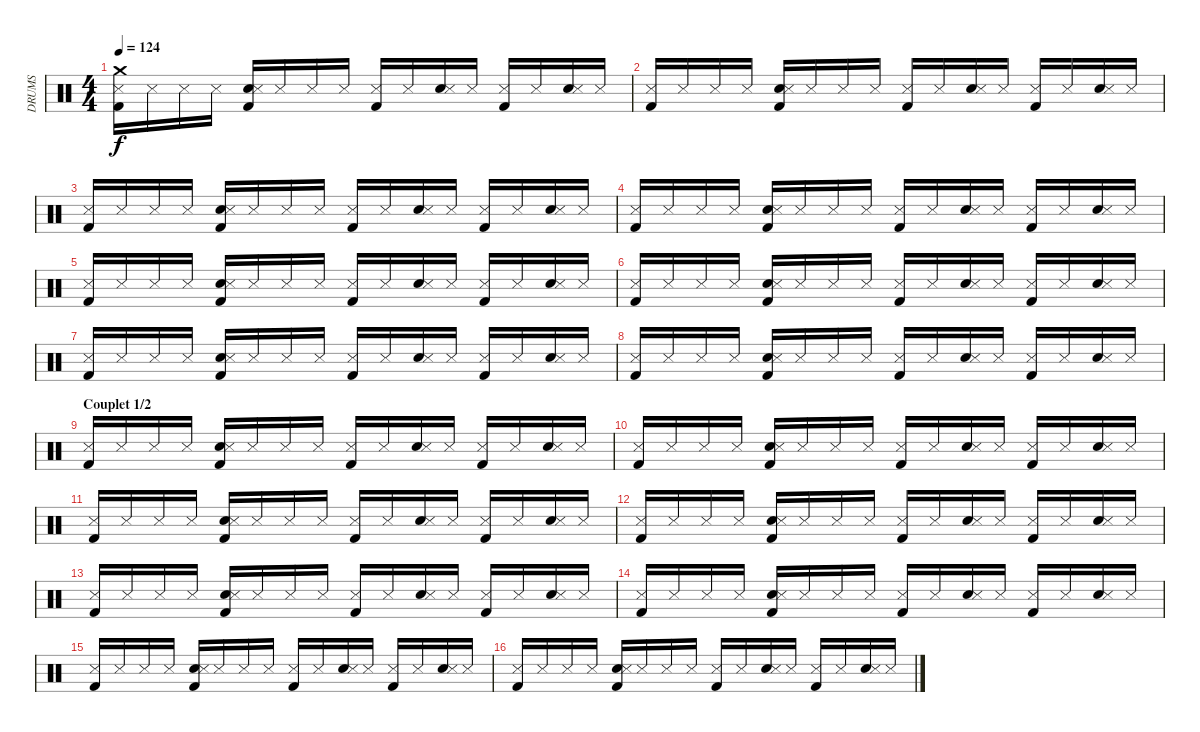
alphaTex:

\track ("DRUMS" "DRUMS") {instrument percussion}
\staff {score}
\articulation defaults
\ts (4 4)
\tempo 124
\clef neutral
\ks c
("Kick (hit) 2" "Snare (side stick) 3" "Crash medium (hit)").16{dy f} "Snare (side stick) 3".16 "Snare (side stick) 3".16 "Snare (side stick) 3".16 ("Kick (hit) 2" "Snare (hit) 2" "Snare (side stick) 3").16 "Snare (side stick) 3".16 "Snare (side stick) 3".16 "Snare (side stick) 3".16 ("Kick (hit) 2" "Snare (side stick) 3").16 "Snare (side stick) 3".16 ("Snare (hit) 2" "Snare (side stick) 3").16 "Snare (side stick) 3".16 ("Kick (hit) 2" "Snare (side stick) 3").16 "Snare (side stick) 3".16 ("Snare (hit) 2" "Snare (side stick) 3").16 "Snare (side stick) 3".16 |
("Kick (hit) 2" "Snare (side stick) 3").16 "Snare (side stick) 3".16 "Snare (side stick) 3".16 "Snare (side stick) 3".16 ("Kick (hit) 2" "Snare (hit) 2" "Snare (side stick) 3").16 "Snare (side stick) 3".16 "Snare (side stick) 3".16 "Snare (side stick) 3".16 ("Kick (hit) 2" "Snare (side stick) 3").16 "Snare (side stick) 3".16 ("Snare (hit) 2" "Snare (side stick) 3").16 "Snare (side stick) 3".16 ("Kick (hit) 2" "Snare (side stick) 3").16 "Snare (side stick) 3".16 ("Snare (hit) 2" "Snare (side stick) 3").16 "Snare (side stick) 3".16 |
("Kick (hit) 2" "Snare (side stick) 3").16 "Snare (side stick) 3".16 "Snare (side stick) 3".16 "Snare (side stick) 3".16 ("Kick (hit) 2" "Snare (hit) 2" "Snare (side stick) 3").16 "Snare (side stick) 3".16 "Snare (side stick) 3".16 "Snare (side stick) 3".16 ("Kick (hit) 2" "Snare (side stick) 3").16 "Snare (side stick) 3".16 ("Snare (hit) 2" "Snare (side stick) 3").16 "Snare (side stick) 3".16 ("Kick (hit) 2" "Snare (side stick) 3").16 "Snare (side stick) 3".16 ("Snare (hit) 2" "Snare (side stick) 3").16 "Snare (side stick) 3".16 |
("Kick (hit) 2" "Snare (side stick) 3").16 "Snare (side stick) 3".16 "Snare (side stick) 3".16 "Snare (side stick) 3".16 ("Kick (hit) 2" "Snare (hit) 2" "Snare (side stick) 3").16 "Snare (side stick) 3".16 "Snare (side stick) 3".16 "Snare (side stick) 3".16 ("Kick (hit) 2" "Snare (side stick) 3").16 "Snare (side stick) 3".16 ("Snare (hit) 2" "Snare (side stick) 3").16 "Snare (side stick) 3".16 ("Kick (hit) 2" "Snare (side stick) 3").16 "Snare (side stick) 3".16 ("Snare (hit) 2" "Snare (side stick) 3").16 "Snare (side stick) 3".16 |
("Kick (hit) 2" "Snare (side stick) 3").16 "Snare (side stick) 3".16 "Snare (side stick) 3".16 "Snare (side stick) 3".16 ("Kick (hit) 2" "Snare (hit) 2" "Snare (side stick) 3").16 "Snare (side stick) 3".16 "Snare (side stick) 3".16 "Snare (side stick) 3".16 ("Kick (hit) 2" "Snare (side stick) 3").16 "Snare (side stick) 3".16 ("Snare (hit) 2" "Snare (side stick) 3").16 "Snare (side stick) 3".16 ("Kick (hit) 2" "Snare (side stick) 3").16 "Snare (side stick) 3".16 ("Snare (hit) 2" "Snare (side stick) 3").16 "Snare (side stick) 3".16 |
("Kick (hit) 2" "Snare (side stick) 3").16 "Snare (side stick) 3".16 "Snare (side stick) 3".16 "Snare (side stick) 3".16 ("Kick (hit) 2" "Snare (hit) 2" "Snare (side stick) 3").16 "Snare (side stick) 3".16 "Snare (side stick) 3".16 "Snare (side stick) 3".16 ("Kick (hit) 2" "Snare (side stick) 3").16 "Snare (side stick) 3".16 ("Snare (hit) 2" "Snare (side stick) 3").16 "Snare (side stick) 3".16 ("Kick (hit) 2" "Snare (side stick) 3").16 "Snare (side stick) 3".16 ("Snare (hit) 2" "Snare (side stick) 3").16 "Snare (side stick) 3".16 |
("Kick (hit) 2" "Snare (side stick) 3").16 "Snare (side stick) 3".16 "Snare (side stick) 3".16 "Snare (side stick) 3".16 ("Kick (hit) 2" "Snare (hit) 2" "Snare (side stick) 3").16 "Snare (side stick) 3".16 "Snare (side stick) 3".16 "Snare (side stick) 3".16 ("Kick (hit) 2" "Snare (side stick) 3").16 "Snare (side stick) 3".16 ("Snare (hit) 2" "Snare (side stick) 3").16 "Snare (side stick) 3".16 ("Kick (hit) 2" "Snare (side stick) 3").16 "Snare (side stick) 3".16 ("Snare (hit) 2" "Snare (side stick) 3").16 "Snare (side stick) 3".16 |
("Kick (hit) 2" "Snare (side stick) 3").16 "Snare (side stick) 3".16 "Snare (side stick) 3".16 "Snare (side stick) 3".16 ("Kick (hit) 2" "Snare (hit) 2" "Snare (side stick) 3").16 "Snare (side stick) 3".16 "Snare (side stick) 3".16 "Snare (side stick) 3".16 ("Kick (hit) 2" "Snare (side stick) 3").16 "Snare (side stick) 3".16 ("Snare (hit) 2" "Snare (side stick) 3").16 "Snare (side stick) 3".16 ("Kick (hit) 2" "Snare (side stick) 3").16 "Snare (side stick) 3".16 ("Snare (hit) 2" "Snare (side stick) 3").16 "Snare (side stick) 3".16 |
\section ("" "Couplet 1/2")
("Kick (hit) 2" "Snare (side stick) 3").16 "Snare (side stick) 3".16 "Snare (side stick) 3".16 "Snare (side stick) 3".16 ("Kick (hit) 2" "Snare (hit) 2" "Snare (side stick) 3").16 "Snare (side stick) 3".16 "Snare (side stick) 3".16 "Snare (side stick) 3".16 ("Kick (hit) 2" "Snare (side stick) 3").16 "Snare (side stick) 3".16 ("Snare (hit) 2" "Snare (side stick) 3").16 "Snare (side stick) 3".16 ("Kick (hit) 2" "Snare (side stick) 3").16 "Snare (side stick) 3".16 ("Snare (hit) 2" "Snare (side stick) 3").16 "Snare (side stick) 3".16 |
("Kick (hit) 2" "Snare (side stick) 3").16 "Snare (side stick) 3".16 "Snare (side stick) 3".16 "Snare (side stick) 3".16 ("Kick (hit) 2" "Snare (hit) 2" "Snare (side stick) 3").16 "Snare (side stick) 3".16 "Snare (side stick) 3".16 "Snare (side stick) 3".16 ("Kick (hit) 2" "Snare (side stick) 3").16 "Snare (side stick) 3".16 ("Snare (hit) 2" "Snare (side stick) 3").16 "Snare (side stick) 3".16 ("Kick (hit) 2" "Snare (side stick) 3").16 "Snare (side stick) 3".16 ("Snare (hit) 2" "Snare (side stick) 3").16 "Snare (side stick) 3".16 |
("Kick (hit) 2" "Snare (side stick) 3").16 "Snare (side stick) 3".16 "Snare (side stick) 3".16 "Snare (side stick) 3".16 ("Kick (hit) 2" "Snare (hit) 2" "Snare (side stick) 3").16 "Snare (side stick) 3".16 "Snare (side stick) 3".16 "Snare (side stick) 3".16 ("Kick (hit) 2" "Snare (side stick) 3").16 "Snare (side stick) 3".16 ("Snare (hit) 2" "Snare (side stick) 3").16 "Snare (side stick) 3".16 ("Kick (hit) 2" "Snare (side stick) 3").16 "Snare (side stick) 3".16 ("Snare (hit) 2" "Snare (side stick) 3").16 "Snare (side stick) 3".16 |
("Kick (hit) 2" "Snare (side stick) 3").16 "Snare (side stick) 3".16 "Snare (side stick) 3".16 "Snare (side stick) 3".16 ("Kick (hit) 2" "Snare (hit) 2" "Snare (side stick) 3").16 "Snare (side stick) 3".16 "Snare (side stick) 3".16 "Snare (side stick) 3".16 ("Kick (hit) 2" "Snare (side stick) 3").16 "Snare (side stick) 3".16 ("Snare (hit) 2" "Snare (side stick) 3").16 "Snare (side stick) 3".16 ("Kick (hit) 2" "Snare (side stick) 3").16 "Snare (side stick) 3".16 ("Snare (hit) 2" "Snare (side stick) 3").16 "Snare (side stick) 3".16 |
("Kick (hit) 2" "Snare (side stick) 3").16 "Snare (side stick) 3".16 "Snare (side stick) 3".16 "Snare (side stick) 3".16 ("Kick (hit) 2" "Snare (hit) 2" "Snare (side stick) 3").16 "Snare (side stick) 3".16 "Snare (side stick) 3".16 "Snare (side stick) 3".16 ("Kick (hit) 2" "Snare (side stick) 3").16 "Snare (side stick) 3".16 ("Snare (hit) 2" "Snare (side stick) 3").16 "Snare (side stick) 3".16 ("Kick (hit) 2" "Snare (side stick) 3").16 "Snare (side stick) 3".16 ("Snare (hit) 2" "Snare (side stick) 3").16 "Snare (side stick) 3".16 |
("Kick (hit) 2" "Snare (side stick) 3").16 "Snare (side stick) 3".16 "Snare (side stick) 3".16 "Snare (side stick) 3".16 ("Kick (hit) 2" "Snare (hit) 2" "Snare (side stick) 3").16 "Snare (side stick) 3".16 "Snare (side stick) 3".16 "Snare (side stick) 3".16 ("Kick (hit) 2" "Snare (side stick) 3").16 "Snare (side stick) 3".16 ("Snare (hit) 2" "Snare (side stick) 3").16 "Snare (side stick) 3".16 ("Kick (hit) 2" "Snare (side stick) 3").16 "Snare (side stick) 3".16 ("Snare (hit) 2" "Snare (side stick) 3").16 "Snare (side stick) 3".16 |
("Kick (hit) 2" "Snare (side stick) 3").16 "Snare (side stick) 3".16 "Snare (side stick) 3".16 "Snare (side stick) 3".16 ("Kick (hit) 2" "Snare (hit) 2" "Snare (side stick) 3").16 "Snare (side stick) 3".16 "Snare (side stick) 3".16 "Snare (side stick) 3".16 ("Kick (hit) 2" "Snare (side stick) 3").16 "Snare (side stick) 3".16 ("Snare (hit) 2" "Snare (side stick) 3").16 "Snare (side stick) 3".16 ("Kick (hit) 2" "Snare (side stick) 3").16 "Snare (side stick) 3".16 ("Snare (hit) 2" "Snare (side stick) 3").16 "Snare (side stick) 3".16 |
("Kick (hit) 2" "Snare (side stick) 3").16 "Snare (side stick) 3".16 "Snare (side stick) 3".16 "Snare (side stick) 3".16 ("Kick (hit) 2" "Snare (hit) 2" "Snare (side stick) 3").16 "Snare (side stick) 3".16 "Snare (side stick) 3".16 "Snare (side stick) 3".16 ("Kick (hit) 2" "Snare (side stick) 3").16 "Snare (side stick) 3".16 ("Snare (hit) 2" "Snare (side stick) 3").16 "Snare (side stick) 3".16 ("Kick (hit) 2" "Snare (side stick) 3").16 "Snare (side stick) 3".16 ("Snare (hit) 2" "Snare (side stick) 3").16 "Snare (side stick) 3".16
